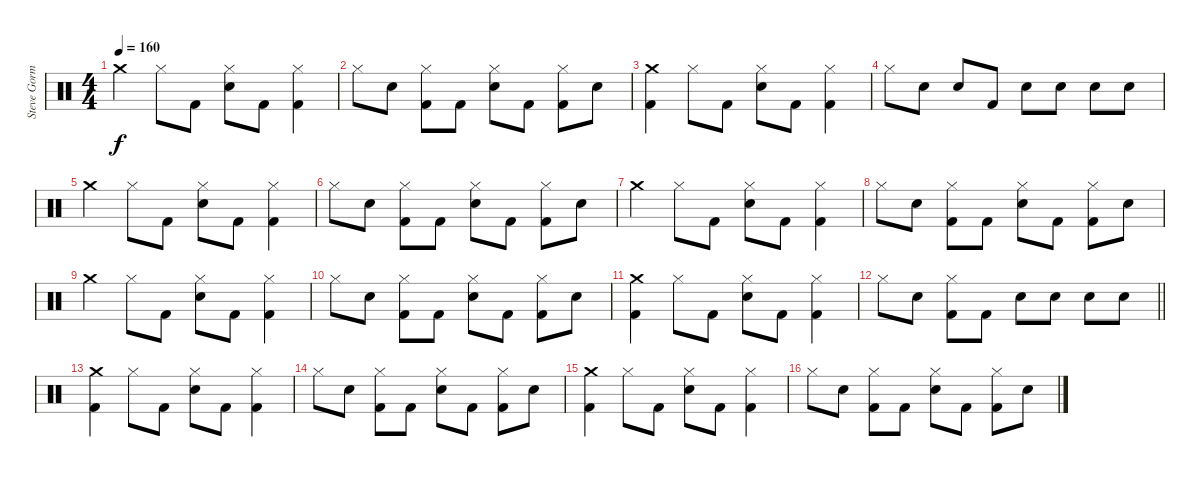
\track ("Steve Gorman " "Steve Gorm") {instrument percussion}
\staff {score}
\articulation defaults
\ts (4 4)
\tempo 160
\clef neutral
\ks c "Crash medium (hit)".4{dy f} "Hi-Hat (closed)".8 "Kick (hit) 2".8
("Hi-Hat (closed)" "Snare (hit) 2").8 "Kick (hit) 2".8 ("Hi-Hat (closed)" "Kick (hit) 2").4 |
"Hi-Hat (closed)".8 "Snare (hit) 2".8 ("Hi-Hat (closed)" "Kick (hit) 2").8 "Kick (hit) 2".8 ("Hi-Hat (closed)" "Snare (hit) 2").8 "Kick (hit) 2".8 ("Hi-Hat (closed)" "Kick (hit) 2").8 "Snare (hit) 2".8 |
("Crash medium (hit)" "Kick (hit) 2").4 "Hi-Hat (closed)".8 "Kick (hit) 2".8 ("Hi-Hat (closed)" "Snare (hit) 2").8 "Kick (hit) 2".8 ("Hi-Hat (closed)" "Kick (hit) 2").4 |
"Hi-Hat (closed)".8 "Snare (hit) 2".8 "Snare (hit) 2".8 "Kick (hit) 2".8 "Snare (hit) 2".8 "Snare (hit) 2".8 "Snare (hit) 2".8 "Snare (hit) 2".8 |
"Crash medium (hit)".4 "Hi-Hat (closed)".8 "Kick (hit) 2".8 ("Hi-Hat (closed)" "Snare (hit) 2").8 "Kick (hit) 2".8 ("Hi-Hat (closed)" "Kick (hit) 2").4 |
"Hi-Hat (closed)".8 "Snare (hit) 2".8 ("Hi-Hat (closed)" "Kick (hit) 2").8 "Kick (hit) 2".8 ("Hi-Hat (closed)" "Snare (hit) 2").8 "Kick (hit) 2".8 ("Hi-Hat (closed)" "Kick (hit) 2").8 "Snare (hit) 2".8 |
"Crash medium (hit)".4 "Hi-Hat (closed)".8 "Kick (hit) 2".8 ("Hi-Hat (closed)" "Snare (hit) 2").8 "Kick (hit) 2".8 ("Hi-Hat (closed)" "Kick (hit) 2").4 |
"Hi-Hat (closed)".8 "Snare (hit) 2".8 ("Hi-Hat (closed)" "Kick (hit) 2").8 "Kick (hit) 2".8 ("Hi-Hat (closed)" "Snare (hit) 2").8 "Kick (hit) 2".8 ("Hi-Hat (closed)" "Kick (hit) 2").8 "Snare (hit) 2".8 |
"Crash medium (hit)".4 "Hi-Hat (closed)".8 "Kick (hit) 2".8 ("Hi-Hat (closed)" "Snare (hit) 2").8 "Kick (hit) 2".8 ("Hi-Hat (closed)" "Kick (hit) 2").4 |
"Hi-Hat (closed)".8 "Snare (hit) 2".8 ("Hi-Hat (closed)" "Kick (hit) 2").8 "Kick (hit) 2".8 ("Hi-Hat (closed)" "Snare (hit) 2").8 "Kick (hit) 2".8 ("Hi-Hat (closed)" "Kick (hit) 2").8 "Snare (hit) 2".8 |
("Crash medium (hit)" "Kick (hit) 2").4 "Hi-Hat (closed)".8 "Kick (hit) 2".8 ("Hi-Hat (closed)" "Snare (hit) 2").8 "Kick (hit) 2".8 ("Hi-Hat (closed)" "Kick (hit) 2").4 |
\barLineRight lightlight "Hi-Hat (closed)".8 "Snare (hit) 2".8
("Hi-Hat (closed)" "Kick (hit) 2").8 "Kick (hit) 2".8 "Snare (hit) 2".8 "Snare (hit) 2".8 "Snare (hit) 2".8 "Snare (hit) 2".8 |
("Crash medium (hit)" "Kick (hit) 2").4 "Hi-Hat (closed)".8 "Kick (hit) 2".8 ("Hi-Hat (closed)" "Snare (hit) 2").8 "Kick (hit) 2".8 ("Hi-Hat (closed)" "Kick (hit) 2").4 |
"Hi-Hat (closed)".8 "Snare (hit) 2".8 ("Hi-Hat (closed)" "Kick (hit) 2").8 "Kick (hit) 2".8 ("Hi-Hat (closed)" "Snare (hit) 2").8 "Kick (hit) 2".8 ("Hi-Hat (closed)" "Kick (hit) 2").8 "Snare (hit) 2".8 |
("Crash medium (hit)" "Kick (hit) 2").4 "Hi-Hat (closed)".8 "Kick (hit) 2".8 ("Hi-Hat (closed)" "Snare (hit) 2").8 "Kick (hit) 2".8 ("Hi-Hat (closed)" "Kick (hit) 2").4 |
"Hi-Hat (closed)".8 "Snare (hit) 2".8 ("Hi-Hat (closed)" "Kick (hit) 2").8 "Kick (hit) 2".8 ("Hi-Hat (closed)" "Snare (hit) 2").8 "Kick (hit) 2".8 ("Hi-Hat (closed)" "Kick (hit) 2").8 "Snare (hit) 2".8
